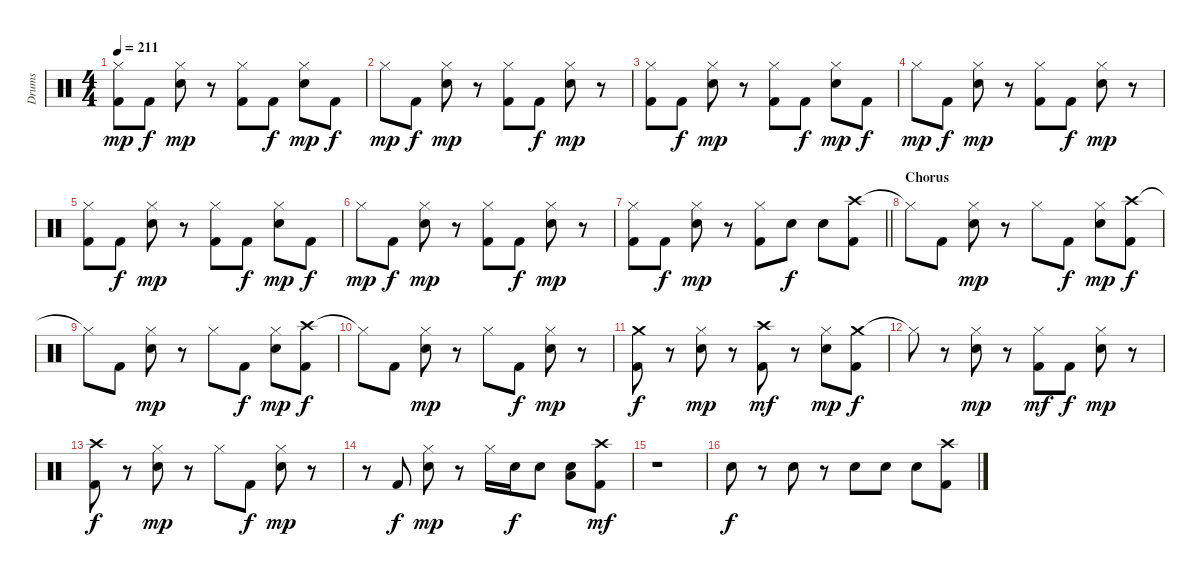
\track ("Drums" "Drums") {instrument percussion}
\staff {score}
\articulation defaults
\ts (4 4)
\tempo 211
\clef neutral
\ks c
("Hi-Hat (closed)" "Kick (hit) 2").8{dy mp} "Kick (hit) 2".8{dy f} ("Hi-Hat (closed)" "Snare (hit) 2").8{dy mp} r.8 ("Hi-Hat (closed)" "Kick (hit) 2").8 "Kick (hit) 2".8{dy f} ("Hi-Hat (closed)" "Snare (hit) 2").8{dy mp} "Kick (hit) 2".8{dy f} |
"Hi-Hat (closed)".8{dy mp} "Kick (hit) 2".8{dy f} ("Hi-Hat (closed)" "Snare (hit) 2").8{dy mp} r.8 ("Hi-Hat (closed)" "Kick (hit) 2").8 "Kick (hit) 2".8{dy f} ("Hi-Hat (closed)" "Snare (hit) 2").8{dy mp} r.8 |
("Hi-Hat (closed)" "Kick (hit) 2").8 "Kick (hit) 2".8{dy f} ("Hi-Hat (closed)" "Snare (hit) 2").8{dy mp} r.8 ("Hi-Hat (closed)" "Kick (hit) 2").8 "Kick (hit) 2".8{dy f} ("Hi-Hat (closed)" "Snare (hit) 2").8{dy mp} "Kick (hit) 2".8{dy f} |
"Hi-Hat (closed)".8{dy mp} "Kick (hit) 2".8{dy f} ("Hi-Hat (closed)" "Snare (hit) 2").8{dy mp} r.8 ("Hi-Hat (closed)" "Kick (hit) 2").8 "Kick (hit) 2".8{dy f} ("Hi-Hat (closed)" "Snare (hit) 2").8{dy mp} r.8 |
("Hi-Hat (closed)" "Kick (hit) 2").8 "Kick (hit) 2".8{dy f} ("Hi-Hat (closed)" "Snare (hit) 2").8{dy mp} r.8 ("Hi-Hat (closed)" "Kick (hit) 2").8 "Kick (hit) 2".8{dy f} ("Hi-Hat (closed)" "Snare (hit) 2").8{dy mp} "Kick (hit) 2".8{dy f} |
"Hi-Hat (closed)".8{dy mp} "Kick (hit) 2".8{dy f} ("Hi-Hat (closed)" "Snare (hit) 2").8{dy mp} r.8 ("Hi-Hat (closed)" "Kick (hit) 2").8 "Kick (hit) 2".8{dy f} ("Hi-Hat (closed)" "Snare (hit) 2").8{dy mp} r.8 |
\barLineRight lightlight
("Hi-Hat (closed)" "Kick (hit) 2").8 "Kick (hit) 2".8{dy f} ("Hi-Hat (closed)" "Snare (hit) 2").8{dy mp} r.8 ("Hi-Hat (closed)" "Kick (hit) 2").8 "Snare (hit) 2".8{dy f} "Snare (hit) 2".8 ("Crash high (hit)" "Kick (hit) 2").8 |
\section ("" "Chorus")
"Hi-Hat (closed)"{t}.8 "Kick (hit) 2".8 ("Hi-Hat (closed)" "Snare (hit) 2").8{dy mp} r.8 "Hi-Hat (closed)".8 "Kick (hit) 2".8{dy f} ("Hi-Hat (closed)" "Snare (hit) 2").8{dy mp} ("Crash high (hit)" "Kick (hit) 2").8{dy f} |
"Hi-Hat (closed)"{t}.8 "Kick (hit) 2".8 ("Hi-Hat (closed)" "Snare (hit) 2").8{dy mp} r.8 "Hi-Hat (closed)".8 "Kick (hit) 2".8{dy f} ("Hi-Hat (closed)" "Snare (hit) 2").8{dy mp} ("Crash high (hit)" "Kick (hit) 2").8{dy f} |
"Hi-Hat (closed)"{t}.8 "Kick (hit) 2".8 ("Hi-Hat (closed)" "Snare (hit) 2").8{dy mp} r.8 "Hi-Hat (closed)".8 "Kick (hit) 2".8{dy f} ("Hi-Hat (closed)" "Snare (hit) 2").8{dy mp} r.8 |
("Crash medium (hit)" "Kick (hit) 2").8{dy f} r.8 ("Hi-Hat (closed)" "Snare (hit) 2").8{dy mp} r.8 ("Crash high (hit)" "Kick (hit) 2").8{dy mf} r.8 ("Hi-Hat (closed)" "Snare (hit) 2").8{dy mp} ("Crash medium (hit)" "Kick (hit) 2").8{dy f} |
"Hi-Hat (closed)"{t}.8 r.8 ("Hi-Hat (closed)" "Snare (hit) 2").8{dy mp} r.8 ("Hi-Hat (closed)" "Kick (hit) 2").8{dy mf} "Kick (hit) 2".8{dy f} ("Hi-Hat (closed)" "Snare (hit) 2").8{dy mp} r.8 |
("Crash high (hit)" "Kick (hit) 2").8{dy f} r.8 ("Hi-Hat (closed)" "Snare (hit) 2").8{dy mp} r.8 "Hi-Hat (closed)".8 "Kick (hit) 2".8{dy f} ("Hi-Hat (closed)" "Snare (hit) 2").8{dy mp} r.8 |
r.8 "Kick (hit) 2".8{dy f} ("Hi-Hat (closed)" "Snare (hit) 2").8{dy mp} r.8 "Hi-Hat (closed)".16 "Snare (hit) 2".16{dy f} "Snare (hit) 2".8 ("Snare (hit) 2" "Low Tom (hit)").8 ("Crash high (hit)" "Kick (hit) 2").8{dy mf} |
r.1 |
"Snare (hit) 2".8{dy f} r.8 "Snare (hit) 2".8 r.8 "Snare (hit) 2".8 "Snare (hit) 2".8 "Snare (hit) 2".8 ("Crash high (hit)" "Kick (hit) 2").8
